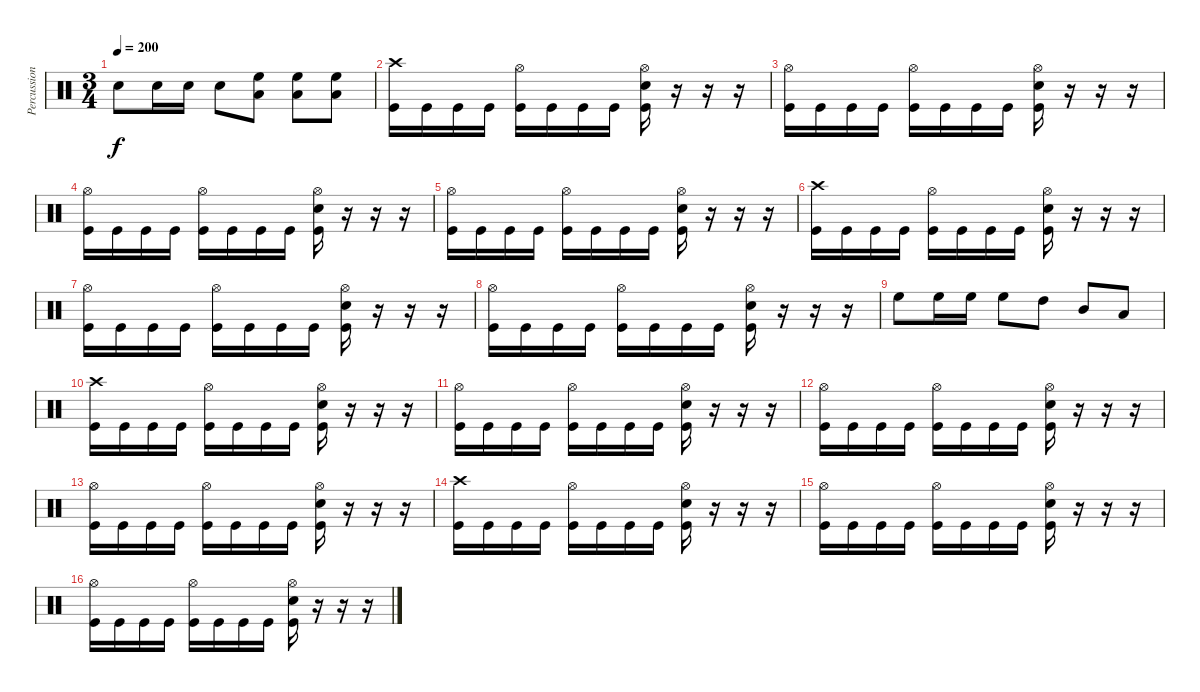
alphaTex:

\track ("Percussion" "Percussion") {instrument percussion}
\staff {score}
\articulation defaults
\ts (3 4)
\tempo 200
\clef neutral
\ks c "Snare (hit) 2".8{dy f} "Snare (hit) 2".16 "Snare (hit) 2".16 "Snare (hit) 2".8
("Low Tom (hit)" "High Floor Tom (hit)").8 ("Low Tom (hit)" "High Floor Tom (hit)").8 ("Low Tom (hit)" "High Floor Tom (hit)").8 |
("Crash high (hit)" "Kick (hit)").16 "Kick (hit)".16 "Kick (hit)".16 "Kick (hit)".16 ("Hi-Hat (open)" "Kick (hit)").16 "Kick (hit)".16 "Kick (hit)".16 "Kick (hit)".16 ("Hi-Hat (open)" "Snare (hit) 2" "Kick (hit)").16 r.16 r.16 r.16 |
("Hi-Hat (open)" "Kick (hit)").16 "Kick (hit)".16 "Kick (hit)".16 "Kick (hit)".16 ("Hi-Hat (open)" "Kick (hit)").16 "Kick (hit)".16 "Kick (hit)".16 "Kick (hit)".16 ("Hi-Hat (open)" "Snare (hit) 2" "Kick (hit)").16 r.16 r.16 r.16 |
("Hi-Hat (open)" "Kick (hit)").16 "Kick (hit)".16 "Kick (hit)".16 "Kick (hit)".16 ("Hi-Hat (open)" "Kick (hit)").16 "Kick (hit)".16 "Kick (hit)".16 "Kick (hit)".16 ("Hi-Hat (open)" "Snare (hit) 2" "Kick (hit)").16 r.16 r.16 r.16 |
("Hi-Hat (open)" "Kick (hit)").16 "Kick (hit)".16 "Kick (hit)".16 "Kick (hit)".16 ("Hi-Hat (open)" "Kick (hit)").16 "Kick (hit)".16 "Kick (hit)".16 "Kick (hit)".16 ("Hi-Hat (open)" "Snare (hit) 2" "Kick (hit)").16 r.16 r.16 r.16 |
("Crash high (hit)" "Kick (hit)").16 "Kick (hit)".16 "Kick (hit)".16 "Kick (hit)".16 ("Hi-Hat (open)" "Kick (hit)").16 "Kick (hit)".16 "Kick (hit)".16 "Kick (hit)".16 ("Hi-Hat (open)" "Snare (hit) 2" "Kick (hit)").16 r.16 r.16 r.16 |
("Hi-Hat (open)" "Kick (hit)").16 "Kick (hit)".16 "Kick (hit)".16 "Kick (hit)".16 ("Hi-Hat (open)" "Kick (hit)").16 "Kick (hit)".16 "Kick (hit)".16 "Kick (hit)".16 ("Hi-Hat (open)" "Snare (hit) 2" "Kick (hit)").16 r.16 r.16 r.16 |
("Hi-Hat (open)" "Kick (hit)").16 "Kick (hit)".16 "Kick (hit)".16 "Kick (hit)".16 ("Hi-Hat (open)" "Kick (hit)").16 "Kick (hit)".16 "Kick (hit)".16 "Kick (hit)".16 ("Hi-Hat (open)" "Snare (hit) 2" "Kick (hit)").16 r.16 r.16 r.16 |
"High Floor Tom (hit)".8 "High Floor Tom (hit)".16 "High Floor Tom (hit)".16 "High Floor Tom (hit)".8 "High Tom (hit)".8 "Mid Tom (hit)".8 "Low Tom (hit)".8 |
("Crash high (hit)" "Kick (hit)").16 "Kick (hit)".16 "Kick (hit)".16 "Kick (hit)".16 ("Hi-Hat (open)" "Kick (hit)").16 "Kick (hit)".16 "Kick (hit)".16 "Kick (hit)".16 ("Hi-Hat (open)" "Snare (hit) 2" "Kick (hit)").16 r.16 r.16 r.16 |
("Hi-Hat (open)" "Kick (hit)").16 "Kick (hit)".16 "Kick (hit)".16 "Kick (hit)".16 ("Hi-Hat (open)" "Kick (hit)").16 "Kick (hit)".16 "Kick (hit)".16 "Kick (hit)".16 ("Hi-Hat (open)" "Snare (hit) 2" "Kick (hit)").16 r.16 r.16 r.16 |
("Hi-Hat (open)" "Kick (hit)").16 "Kick (hit)".16 "Kick (hit)".16 "Kick (hit)".16 ("Hi-Hat (open)" "Kick (hit)").16 "Kick (hit)".16 "Kick (hit)".16 "Kick (hit)".16 ("Hi-Hat (open)" "Snare (hit) 2" "Kick (hit)").16 r.16 r.16 r.16 |
("Hi-Hat (open)" "Kick (hit)").16 "Kick (hit)".16 "Kick (hit)".16 "Kick (hit)".16 ("Hi-Hat (open)" "Kick (hit)").16 "Kick (hit)".16 "Kick (hit)".16 "Kick (hit)".16 ("Hi-Hat (open)" "Snare (hit) 2" "Kick (hit)").16 r.16 r.16 r.16 |
("Crash high (hit)" "Kick (hit)").16 "Kick (hit)".16 "Kick (hit)".16 "Kick (hit)".16 ("Hi-Hat (open)" "Kick (hit)").16 "Kick (hit)".16 "Kick (hit)".16 "Kick (hit)".16 ("Hi-Hat (open)" "Snare (hit) 2" "Kick (hit)").16 r.16 r.16 r.16 |
("Hi-Hat (open)" "Kick (hit)").16 "Kick (hit)".16 "Kick (hit)".16 "Kick (hit)".16 ("Hi-Hat (open)" "Kick (hit)").16 "Kick (hit)".16 "Kick (hit)".16 "Kick (hit)".16 ("Hi-Hat (open)" "Snare (hit) 2" "Kick (hit)").16 r.16 r.16 r.16 |
("Hi-Hat (open)" "Kick (hit)").16 "Kick (hit)".16 "Kick (hit)".16 "Kick (hit)".16 ("Hi-Hat (open)" "Kick (hit)").16 "Kick (hit)".16 "Kick (hit)".16 "Kick (hit)".16 ("Hi-Hat (open)" "Snare (hit) 2" "Kick (hit)").16 r.16 r.16 r.16
